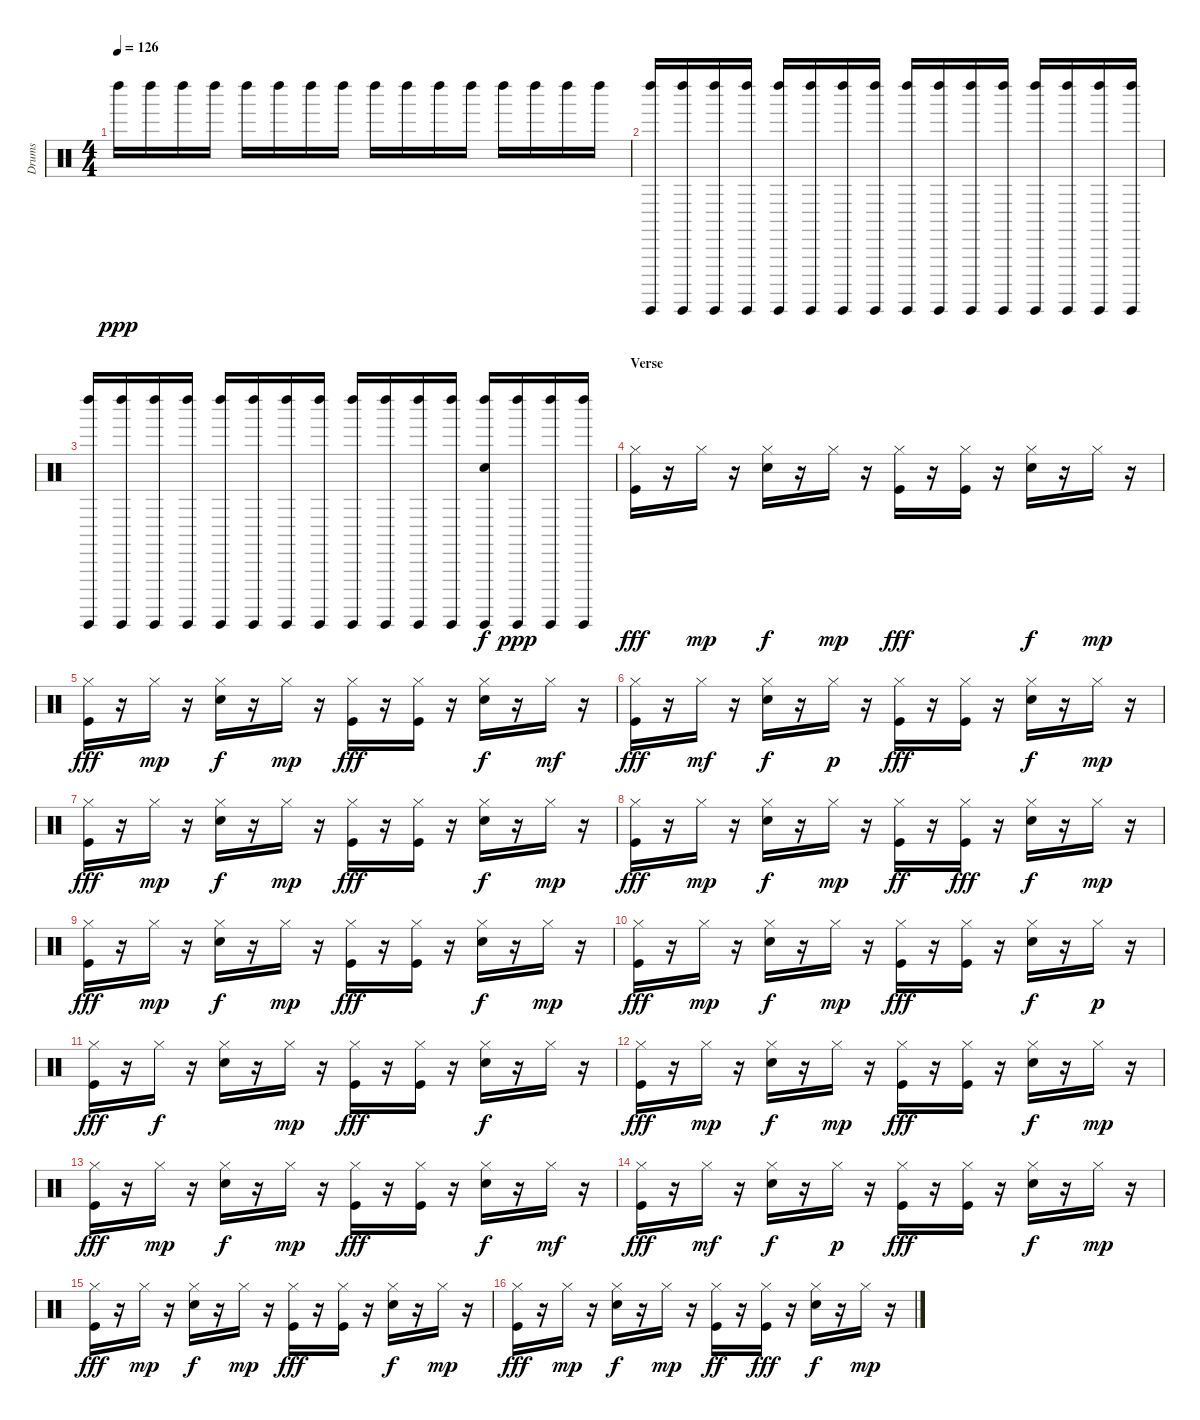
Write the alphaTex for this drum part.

\track ("Drums" "Drums") {instrument percussion}
\staff {score}
\articulation defaults
\ts (4 4)
\tempo 126
\clef neutral
\ks c "Left Maraca (hit)".16{dy ppp} "Left Maraca (hit)".16 "Left Maraca (hit)".16 "Left Maraca (hit)".16 "Left Maraca (hit)".16 "Left Maraca (hit)".16 "Left Maraca (hit)".16 "Left Maraca (hit)".16 "Left Maraca (hit)".16 "Left Maraca (hit)".16 "Left Maraca (hit)".16 "Left Maraca (hit)".16 "Left Maraca (hit)".16 "Left Maraca (hit)".16 "Left Maraca (hit)".16 "Left Maraca (hit)".16
|
("Left Maraca (hit)" "Guiro (hit)").16 ("Left Maraca (hit)" "Guiro (hit)").16 ("Left Maraca (hit)" "Guiro (hit)").16 ("Left Maraca (hit)" "Guiro (hit)").16 ("Left Maraca (hit)" "Guiro (hit)").16 ("Left Maraca (hit)" "Guiro (hit)").16 ("Left Maraca (hit)" "Guiro (hit)").16 ("Left Maraca (hit)" "Guiro (hit)").16 ("Left Maraca (hit)" "Guiro (hit)").16 ("Left Maraca (hit)" "Guiro (hit)").16 ("Left Maraca (hit)" "Guiro (hit)").16 ("Left Maraca (hit)" "Guiro (hit)").16 ("Left Maraca (hit)" "Guiro (hit)").16 ("Left Maraca (hit)" "Guiro (hit)").16 ("Left Maraca (hit)" "Guiro (hit)").16 ("Left Maraca (hit)" "Guiro (hit)").16 |
("Left Maraca (hit)" "Guiro (hit)").16 ("Left Maraca (hit)" "Guiro (hit)").16 ("Left Maraca (hit)" "Guiro (hit)").16 ("Left Maraca (hit)" "Guiro (hit)").16 ("Left Maraca (hit)" "Guiro (hit)").16 ("Left Maraca (hit)" "Guiro (hit)").16 ("Left Maraca (hit)" "Guiro (hit)").16 ("Left Maraca (hit)" "Guiro (hit)").16 ("Left Maraca (hit)" "Guiro (hit)").16 ("Left Maraca (hit)" "Guiro (hit)").16 ("Left Maraca (hit)" "Guiro (hit)").16 ("Left Maraca (hit)" "Guiro (hit)").16 ("Electric Snare (hit)" "Left Maraca (hit)" "Guiro (hit)").16{dy f} ("Left Maraca (hit)" "Guiro (hit)").16{dy ppp} ("Left Maraca (hit)" "Guiro (hit)").16 ("Left Maraca (hit)" "Guiro (hit)").16 |
\section ("" "Verse")
("Kick (hit)" "Hi-Hat (closed)").16{dy fff} r.16 "Hi-Hat (closed)".16{dy mp} r.16 ("Electric Snare (hit)" "Hi-Hat (closed)").16{dy f} r.16 "Hi-Hat (closed)".16{dy mp} r.16 ("Kick (hit)" "Hi-Hat (closed)").16{dy fff} r.16 ("Kick (hit)" "Hi-Hat (closed)").16 r.16 ("Electric Snare (hit)" "Hi-Hat (closed)").16{dy f} r.16 "Hi-Hat (closed)".16{dy mp} r.16 |
("Kick (hit)" "Hi-Hat (closed)").16{dy fff} r.16 "Hi-Hat (closed)".16{dy mp} r.16 ("Electric Snare (hit)" "Hi-Hat (closed)").16{dy f} r.16 "Hi-Hat (closed)".16{dy mp} r.16 ("Kick (hit)" "Hi-Hat (closed)").16{dy fff} r.16 ("Kick (hit)" "Hi-Hat (closed)").16 r.16 ("Electric Snare (hit)" "Hi-Hat (closed)").16{dy f} r.16 "Hi-Hat (closed)".16{dy mf} r.16 |
("Kick (hit)" "Hi-Hat (closed)").16{dy fff} r.16 "Hi-Hat (closed)".16{dy mf} r.16 ("Electric Snare (hit)" "Hi-Hat (closed)").16{dy f} r.16 "Hi-Hat (closed)".16{dy p} r.16 ("Kick (hit)" "Hi-Hat (closed)").16{dy fff} r.16 ("Kick (hit)" "Hi-Hat (closed)").16 r.16 ("Electric Snare (hit)" "Hi-Hat (closed)").16{dy f} r.16 "Hi-Hat (closed)".16{dy mp} r.16 |
("Kick (hit)" "Hi-Hat (closed)").16{dy fff} r.16 "Hi-Hat (closed)".16{dy mp} r.16 ("Electric Snare (hit)" "Hi-Hat (closed)").16{dy f} r.16 "Hi-Hat (closed)".16{dy mp} r.16 ("Kick (hit)" "Hi-Hat (closed)").16{dy fff} r.16 ("Kick (hit)" "Hi-Hat (closed)").16 r.16 ("Electric Snare (hit)" "Hi-Hat (closed)").16{dy f} r.16 "Hi-Hat (closed)".16{dy mp} r.16 |
("Kick (hit)" "Hi-Hat (closed)").16{dy fff} r.16 "Hi-Hat (closed)".16{dy mp} r.16 ("Electric Snare (hit)" "Hi-Hat (closed)").16{dy f} r.16 "Hi-Hat (closed)".16{dy mp} r.16 ("Kick (hit)" "Hi-Hat (closed)").16{dy ff} r.16 ("Kick (hit)" "Hi-Hat (closed)").16{dy fff} r.16 ("Electric Snare (hit)" "Hi-Hat (closed)").16{dy f} r.16 "Hi-Hat (closed)".16{dy mp} r.16 |
("Kick (hit)" "Hi-Hat (closed)").16{dy fff} r.16 "Hi-Hat (closed)".16{dy mp} r.16 ("Electric Snare (hit)" "Hi-Hat (closed)").16{dy f} r.16 "Hi-Hat (closed)".16{dy mp} r.16 ("Kick (hit)" "Hi-Hat (closed)").16{dy fff} r.16 ("Kick (hit)" "Hi-Hat (closed)").16 r.16 ("Electric Snare (hit)" "Hi-Hat (closed)").16{dy f} r.16 "Hi-Hat (closed)".16{dy mp} r.16 |
("Kick (hit)" "Hi-Hat (closed)").16{dy fff} r.16 "Hi-Hat (closed)".16{dy mp} r.16 ("Electric Snare (hit)" "Hi-Hat (closed)").16{dy f} r.16 "Hi-Hat (closed)".16{dy mp} r.16 ("Kick (hit)" "Hi-Hat (closed)").16{dy fff} r.16 ("Kick (hit)" "Hi-Hat (closed)").16 r.16 ("Electric Snare (hit)" "Hi-Hat (closed)").16{dy f} r.16 "Hi-Hat (closed)".16{dy p} r.16 |
("Kick (hit)" "Hi-Hat (closed)").16{dy fff} r.16 "Hi-Hat (closed)".16{dy f} r.16 ("Electric Snare (hit)" "Hi-Hat (closed)").16 r.16 "Hi-Hat (closed)".16{dy mp} r.16 ("Kick (hit)" "Hi-Hat (closed)").16{dy fff} r.16 ("Kick (hit)" "Hi-Hat (closed)").16 r.16 ("Electric Snare (hit)" "Hi-Hat (closed)").16{dy f} r.16 "Hi-Hat (closed)".16 r.16 |
("Kick (hit)" "Hi-Hat (closed)").16{dy fff} r.16 "Hi-Hat (closed)".16{dy mp} r.16 ("Electric Snare (hit)" "Hi-Hat (closed)").16{dy f} r.16 "Hi-Hat (closed)".16{dy mp} r.16 ("Kick (hit)" "Hi-Hat (closed)").16{dy fff} r.16 ("Kick (hit)" "Hi-Hat (closed)").16 r.16 ("Electric Snare (hit)" "Hi-Hat (closed)").16{dy f} r.16 "Hi-Hat (closed)".16{dy mp} r.16 |
("Kick (hit)" "Hi-Hat (closed)").16{dy fff} r.16 "Hi-Hat (closed)".16{dy mp} r.16 ("Electric Snare (hit)" "Hi-Hat (closed)").16{dy f} r.16 "Hi-Hat (closed)".16{dy mp} r.16 ("Kick (hit)" "Hi-Hat (closed)").16{dy fff} r.16 ("Kick (hit)" "Hi-Hat (closed)").16 r.16 ("Electric Snare (hit)" "Hi-Hat (closed)").16{dy f} r.16 "Hi-Hat (closed)".16{dy mf} r.16 |
("Kick (hit)" "Hi-Hat (closed)").16{dy fff} r.16 "Hi-Hat (closed)".16{dy mf} r.16 ("Electric Snare (hit)" "Hi-Hat (closed)").16{dy f} r.16 "Hi-Hat (closed)".16{dy p} r.16 ("Kick (hit)" "Hi-Hat (closed)").16{dy fff} r.16 ("Kick (hit)" "Hi-Hat (closed)").16 r.16 ("Electric Snare (hit)" "Hi-Hat (closed)").16{dy f} r.16 "Hi-Hat (closed)".16{dy mp} r.16 |
("Kick (hit)" "Hi-Hat (closed)").16{dy fff} r.16 "Hi-Hat (closed)".16{dy mp} r.16 ("Electric Snare (hit)" "Hi-Hat (closed)").16{dy f} r.16 "Hi-Hat (closed)".16{dy mp} r.16 ("Kick (hit)" "Hi-Hat (closed)").16{dy fff} r.16 ("Kick (hit)" "Hi-Hat (closed)").16 r.16 ("Electric Snare (hit)" "Hi-Hat (closed)").16{dy f} r.16 "Hi-Hat (closed)".16{dy mp} r.16 |
("Kick (hit)" "Hi-Hat (closed)").16{dy fff} r.16 "Hi-Hat (closed)".16{dy mp} r.16 ("Electric Snare (hit)" "Hi-Hat (closed)").16{dy f} r.16 "Hi-Hat (closed)".16{dy mp} r.16 ("Kick (hit)" "Hi-Hat (closed)").16{dy ff} r.16 ("Kick (hit)" "Hi-Hat (closed)").16{dy fff} r.16 ("Electric Snare (hit)" "Hi-Hat (closed)").16{dy f} r.16 "Hi-Hat (closed)".16{dy mp} r.16
